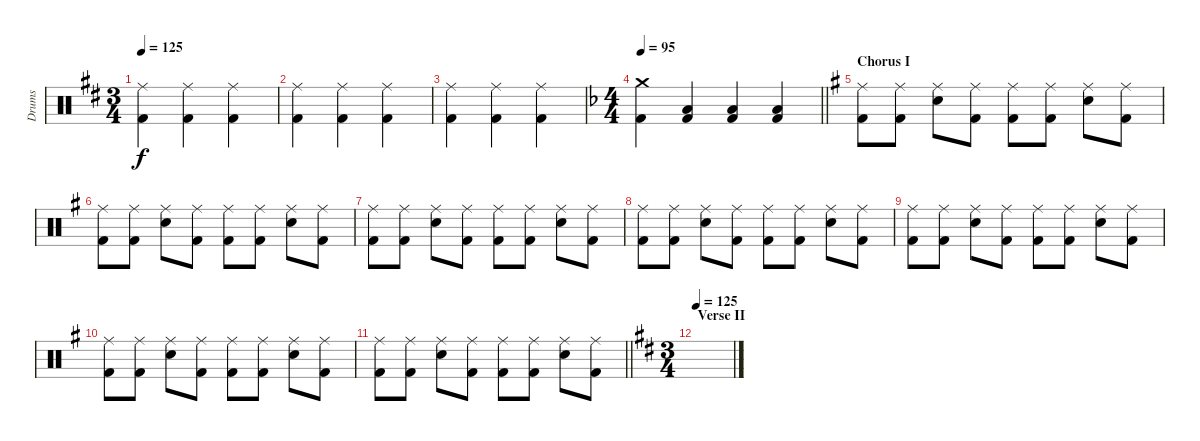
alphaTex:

\track ("Drums" "Drums") {instrument percussion}
\staff {score}
\articulation defaults
\ts (3 4)
\tempo 125
\clef neutral
\ks d
("Ride (middle)" "Kick (hit) 2").4{dy f} ("Ride (middle)" "Kick (hit) 2").4 ("Ride (middle)" "Kick (hit) 2").4 |
("Ride (middle)" "Kick (hit) 2").4 ("Ride (middle)" "Kick (hit) 2").4 ("Ride (middle)" "Kick (hit) 2").4 |
("Ride (middle)" "Kick (hit) 2").4 ("Ride (middle)" "Kick (hit) 2").4 ("Ride (middle)" "Kick (hit) 2").4 |
\ts (4 4)
\tempo 95
\barLineRight lightlight
\ks f
("Crash medium (hit)" "Kick (hit) 2").4 ("Low Tom (hit)" "Kick (hit) 2").4 ("Low Tom (hit)" "Kick (hit) 2").4 ("Low Tom (hit)" "Kick (hit) 2").4 |
\section ("" "Chorus I")
\ks g
("Ride (middle)" "Kick (hit) 2").8 ("Ride (middle)" "Kick (hit) 2").8 ("Ride (middle)" "Snare (hit) 2").8 ("Ride (middle)" "Kick (hit) 2").8 ("Ride (middle)" "Kick (hit) 2").8 ("Ride (middle)" "Kick (hit) 2").8 ("Ride (middle)" "Snare (hit) 2").8 ("Ride (middle)" "Kick (hit) 2").8 |
("Ride (middle)" "Kick (hit) 2").8 ("Ride (middle)" "Kick (hit) 2").8 ("Ride (middle)" "Snare (hit) 2").8 ("Ride (middle)" "Kick (hit) 2").8 ("Ride (middle)" "Kick (hit) 2").8 ("Ride (middle)" "Kick (hit) 2").8 ("Ride (middle)" "Snare (hit) 2").8 ("Ride (middle)" "Kick (hit) 2").8 |
("Ride (middle)" "Kick (hit) 2").8 ("Ride (middle)" "Kick (hit) 2").8 ("Ride (middle)" "Snare (hit) 2").8 ("Ride (middle)" "Kick (hit) 2").8 ("Ride (middle)" "Kick (hit) 2").8 ("Ride (middle)" "Kick (hit) 2").8 ("Ride (middle)" "Snare (hit) 2").8 ("Ride (middle)" "Kick (hit) 2").8 |
("Ride (middle)" "Kick (hit) 2").8 ("Ride (middle)" "Kick (hit) 2").8 ("Ride (middle)" "Snare (hit) 2").8 ("Ride (middle)" "Kick (hit) 2").8 ("Ride (middle)" "Kick (hit) 2").8 ("Ride (middle)" "Kick (hit) 2").8 ("Ride (middle)" "Snare (hit) 2").8 ("Ride (middle)" "Kick (hit) 2").8 |
("Ride (middle)" "Kick (hit) 2").8 ("Ride (middle)" "Kick (hit) 2").8 ("Ride (middle)" "Snare (hit) 2").8 ("Ride (middle)" "Kick (hit) 2").8 ("Ride (middle)" "Kick (hit) 2").8 ("Ride (middle)" "Kick (hit) 2").8 ("Ride (middle)" "Snare (hit) 2").8 ("Ride (middle)" "Kick (hit) 2").8 |
("Ride (middle)" "Kick (hit) 2").8 ("Ride (middle)" "Kick (hit) 2").8 ("Ride (middle)" "Snare (hit) 2").8 ("Ride (middle)" "Kick (hit) 2").8 ("Ride (middle)" "Kick (hit) 2").8 ("Ride (middle)" "Kick (hit) 2").8 ("Ride (middle)" "Snare (hit) 2").8 ("Ride (middle)" "Kick (hit) 2").8 |
\barLineRight lightlight
("Ride (middle)" "Kick (hit) 2").8 ("Ride (middle)" "Kick (hit) 2").8 ("Ride (middle)" "Snare (hit) 2").8 ("Ride (middle)" "Kick (hit) 2").8 ("Ride (middle)" "Kick (hit) 2").8 ("Ride (middle)" "Kick (hit) 2").8 ("Ride (middle)" "Snare (hit) 2").8 ("Ride (middle)" "Kick (hit) 2").8 |
\ts (3 4)
\section ("" "Verse II")
\tempo 125
\ks d
